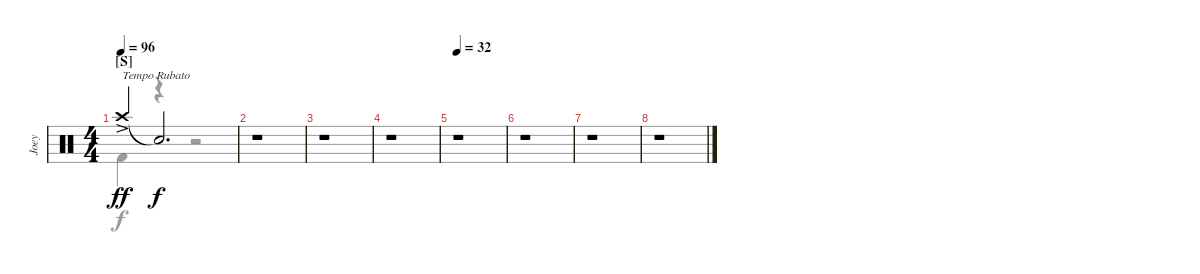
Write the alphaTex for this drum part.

\track ("Joey" "Joey") {instrument percussion}
\staff {score}
\articulation defaults
\voice
\ts (4 4)
\section ("" "[S]")
\tempo 96
\clef neutral
\ks c "Crash high (hit)"{ac}.4{txt "Tempo Rubato" dy ff} "Snare (hit)"{t}.2{d dy f}
|
r.1 |
r.1 |
r.1 |
\tempo 32
r.1 |
r.1 |
r.1 |
r.1
\voice
\clef neutral
\ottava regular
\simile none
\ks c "Kick (hit) 2".4{dy f}
r.4 r.2 |
r.1 |
r.1 |
r.1 |
r.1 |
r.1 |
r.1 |
r.1
